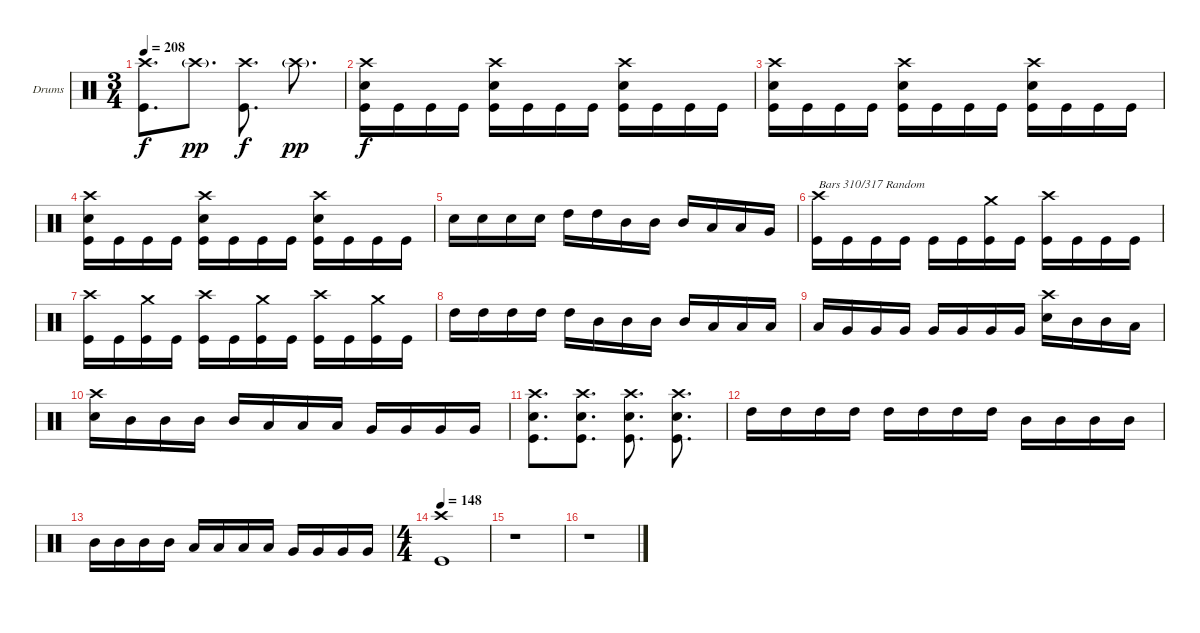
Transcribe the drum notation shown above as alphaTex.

\bracketExtendMode groupsimilarinstruments
\firstSystemTrackNameOrientation horizontal
\otherSystemsTrackNameOrientation horizontal
\track ("Drumkit" "Drums") {instrument percussion}
\staff {score}
\articulation defaults
\ts (3 4)
\tempo 208
\clef neutral
\ks c
("Crash high (hit)" "Kick (hit)").8{d dy f} "Crash high (hit)"{g}.8{d dy pp} ("Crash high (hit)" "Kick (hit)").8{d dy f} "Crash high (hit)"{g}.8{d dy pp} |
("Crash high (hit)" "Snare (hit) 2" "Kick (hit)").16{dy f} "Kick (hit)".16 "Kick (hit)".16 "Kick (hit)".16 ("Crash high (hit)" "Snare (hit) 2" "Kick (hit)").16 "Kick (hit)".16 "Kick (hit)".16 "Kick (hit)".16 ("Crash high (hit)" "Snare (hit) 2" "Kick (hit)").16 "Kick (hit)".16 "Kick (hit)".16 "Kick (hit)".16 |
("Crash high (hit)" "Snare (hit) 2" "Kick (hit)").16 "Kick (hit)".16 "Kick (hit)".16 "Kick (hit)".16 ("Crash high (hit)" "Snare (hit) 2" "Kick (hit)").16 "Kick (hit)".16 "Kick (hit)".16 "Kick (hit)".16 ("Crash high (hit)" "Snare (hit) 2" "Kick (hit)").16 "Kick (hit)".16 "Kick (hit)".16 "Kick (hit)".16 |
("Crash high (hit)" "Snare (hit) 2" "Kick (hit)").16 "Kick (hit)".16 "Kick (hit)".16 "Kick (hit)".16 ("Crash high (hit)" "Snare (hit) 2" "Kick (hit)").16 "Kick (hit)".16 "Kick (hit)".16 "Kick (hit)".16 ("Crash high (hit)" "Snare (hit) 2" "Kick (hit)").16 "Kick (hit)".16 "Kick (hit)".16 "Kick (hit)".16 |
"Snare (hit) 2".16 "Snare (hit) 2".16 "Snare (hit) 2".16 "Snare (hit) 2".16 "High Tom (hit)".16 "High Tom (hit)".16 "Mid Tom (hit)".16 "Mid Tom (hit)".16 "Mid Tom (hit)".16 "Low Tom (hit)".16 "Low Tom (hit)".16 "Very Low Tom (hit)".16 |
("Crash high (hit)" "Kick (hit)").16{txt "Bars 310/317 Random"} "Kick (hit)".16 "Kick (hit)".16 "Kick (hit)".16 "Kick (hit)".16 "Kick (hit)".16 ("Crash medium (hit)" "Kick (hit)").16 "Kick (hit)".16 ("Crash high (hit)" "Kick (hit)").16 "Kick (hit)".16 "Kick (hit)".16 "Kick (hit)".16 |
("Crash high (hit)" "Kick (hit)").16 "Kick (hit)".16 ("Crash medium (hit)" "Kick (hit)").16 "Kick (hit)".16 ("Crash high (hit)" "Kick (hit)").16 "Kick (hit)".16 ("Crash medium (hit)" "Kick (hit)").16 "Kick (hit)".16 ("Crash high (hit)" "Kick (hit)").16 "Kick (hit)".16 ("Crash medium (hit)" "Kick (hit)").16 "Kick (hit)".16 |
"High Tom (hit)".16 "High Tom (hit)".16 "High Tom (hit)".16 "High Tom (hit)".16 "High Tom (hit)".16 "Mid Tom (hit)".16 "Mid Tom (hit)".16 "Mid Tom (hit)".16 "Mid Tom (hit)".16 "Low Tom (hit)".16 "Low Tom (hit)".16 "Low Tom (hit)".16 |
"Low Tom (hit)".16 "Very Low Tom (hit)".16 "Very Low Tom (hit)".16 "Very Low Tom (hit)".16 "Very Low Tom (hit)".16 "Very Low Tom (hit)".16 "Very Low Tom (hit)".16 "Very Low Tom (hit)".16 ("Crash high (hit)" "Snare (hit) 2").16 "Mid Tom (hit)".16 "Mid Tom (hit)".16 "Low Tom (hit)".16 |
("Crash high (hit)" "Snare (hit) 2").16 "Mid Tom (hit)".16 "Mid Tom (hit)".16 "Mid Tom (hit)".16 "Mid Tom (hit)".16 "Low Tom (hit)".16 "Low Tom (hit)".16 "Low Tom (hit)".16 "Very Low Tom (hit)".16 "Very Low Tom (hit)".16 "Very Low Tom (hit)".16 "Very Low Tom (hit)".16 |
("Crash high (hit)" "Snare (hit) 2" "Kick (hit)").8{d} ("Crash high (hit)" "Snare (hit) 2" "Kick (hit)").8{d} ("Crash high (hit)" "Snare (hit) 2" "Kick (hit)").8{d} ("Crash high (hit)" "Snare (hit) 2" "Kick (hit)").8{d} |
"High Tom (hit)".16 "High Tom (hit)".16 "High Tom (hit)".16 "High Tom (hit)".16 "High Tom (hit)".16 "High Tom (hit)".16 "High Tom (hit)".16 "High Tom (hit)".16 "Mid Tom (hit)".16 "Mid Tom (hit)".16 "Mid Tom (hit)".16 "Mid Tom (hit)".16 |
"Mid Tom (hit)".16 "Mid Tom (hit)".16 "Mid Tom (hit)".16 "Mid Tom (hit)".16 "Low Tom (hit)".16 "Low Tom (hit)".16 "Low Tom (hit)".16 "Low Tom (hit)".16 "Very Low Tom (hit)".16 "Very Low Tom (hit)".16 "Very Low Tom (hit)".16 "Very Low Tom (hit)".16 |
\ts (4 4)
\beaming (8 2 2 2 2)
\tempo 148
("Crash high (hit)" "Kick (hit)").1 |
r.1 |
r.1
